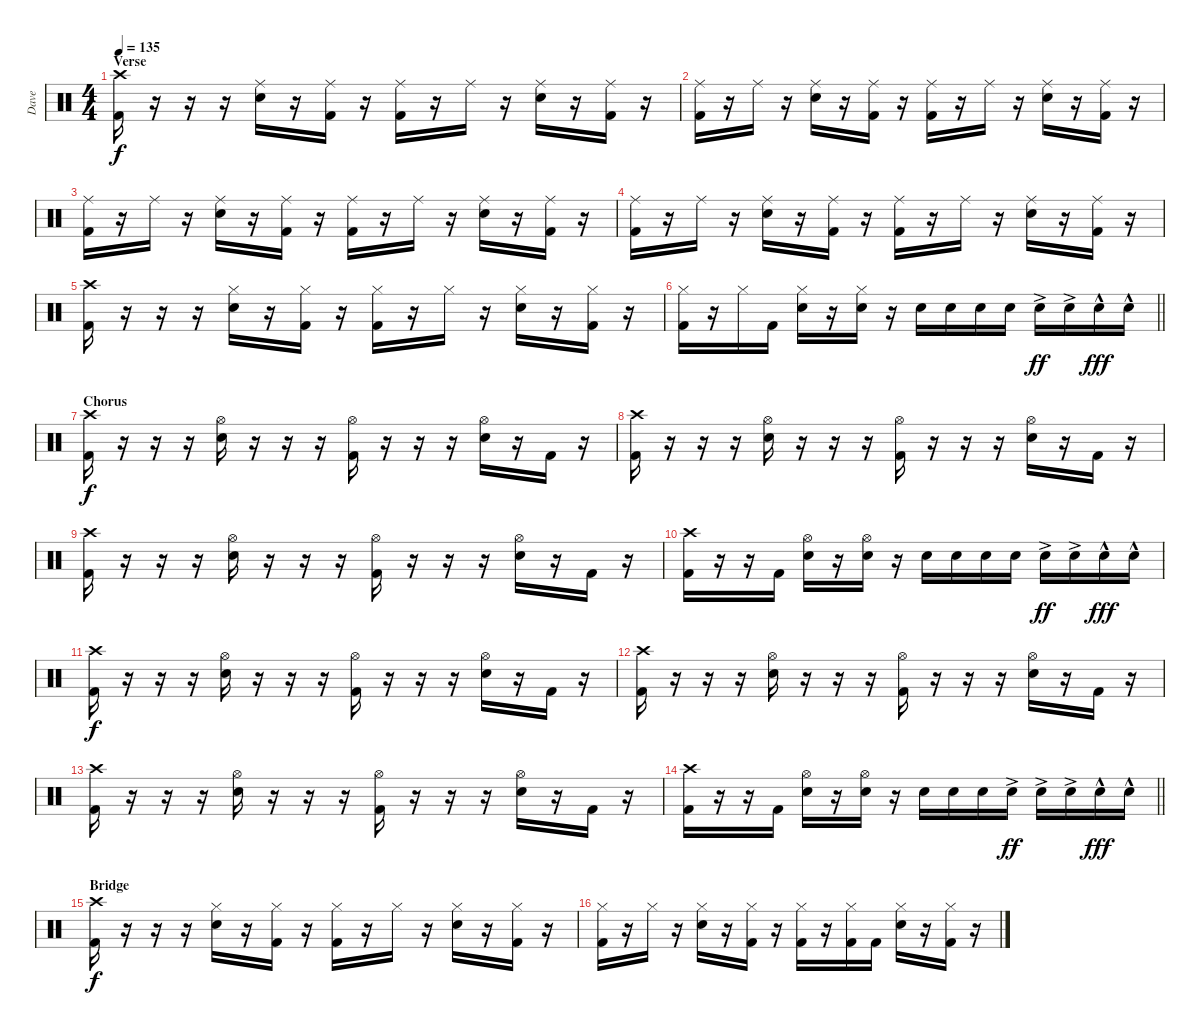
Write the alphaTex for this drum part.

\track ("Dave" "Dave") {instrument percussion}
\staff {score}
\articulation defaults
\ts (4 4)
\section ("" "Verse")
\tempo 135
\clef neutral
\ks c
("Crash high (hit)" "Kick (hit) 2").16{dy f} r.16 r.16 r.16 ("Ride (middle)" "Electric Snare (hit)").16 r.16 ("Ride (middle)" "Kick (hit) 2").16 r.16 ("Ride (middle)" "Kick (hit) 2").16 r.16 "Ride (middle)".16 r.16 ("Ride (middle)" "Electric Snare (hit)").16 r.16 ("Ride (middle)" "Kick (hit) 2").16 r.16 |
("Ride (middle)" "Kick (hit) 2").16 r.16 "Ride (middle)".16 r.16 ("Ride (middle)" "Electric Snare (hit)").16 r.16 ("Ride (middle)" "Kick (hit) 2").16 r.16 ("Ride (middle)" "Kick (hit) 2").16 r.16 "Ride (middle)".16 r.16 ("Ride (middle)" "Electric Snare (hit)").16 r.16 ("Ride (middle)" "Kick (hit) 2").16 r.16 |
("Ride (middle)" "Kick (hit) 2").16 r.16 "Ride (middle)".16 r.16 ("Ride (middle)" "Electric Snare (hit)").16 r.16 ("Ride (middle)" "Kick (hit) 2").16 r.16 ("Ride (middle)" "Kick (hit) 2").16 r.16 "Ride (middle)".16 r.16 ("Ride (middle)" "Electric Snare (hit)").16 r.16 ("Ride (middle)" "Kick (hit) 2").16 r.16 |
("Ride (middle)" "Kick (hit) 2").16 r.16 "Ride (middle)".16 r.16 ("Ride (middle)" "Electric Snare (hit)").16 r.16 ("Ride (middle)" "Kick (hit) 2").16 r.16 ("Ride (middle)" "Kick (hit) 2").16 r.16 "Ride (middle)".16 r.16 ("Ride (middle)" "Electric Snare (hit)").16 r.16 ("Ride (middle)" "Kick (hit) 2").16 r.16 |
("Crash high (hit)" "Kick (hit) 2").16 r.16 r.16 r.16 ("Hi-Hat (closed)" "Electric Snare (hit)").16 r.16 ("Hi-Hat (closed)" "Kick (hit) 2").16 r.16 ("Hi-Hat (closed)" "Kick (hit) 2").16 r.16 "Hi-Hat (closed)".16 r.16 ("Hi-Hat (closed)" "Electric Snare (hit)").16 r.16 ("Hi-Hat (closed)" "Kick (hit) 2").16 r.16 |
\barLineRight lightlight
("Hi-Hat (closed)" "Kick (hit) 2").16 r.16 "Hi-Hat (closed)".16 "Kick (hit) 2".16 ("Hi-Hat (closed)" "Electric Snare (hit)").16 r.16 ("Hi-Hat (closed)" "Electric Snare (hit)").16 r.16 "Electric Snare (hit)".16 "Electric Snare (hit)".16 "Electric Snare (hit)".16 "Electric Snare (hit)".16 "Electric Snare (hit)"{ac}.16{dy ff} "Electric Snare (hit)"{ac}.16 "Electric Snare (hit)"{hac}.16{dy fff} "Electric Snare (hit)"{hac}.16 |
\section ("" "Chorus")
("Crash high (hit)" "Kick (hit) 2").16{dy f} r.16 r.16 r.16 ("Hi-Hat (open)" "Electric Snare (hit)").16 r.16 r.16 r.16 ("Hi-Hat (open)" "Kick (hit) 2").16 r.16 r.16 r.16 ("Hi-Hat (open)" "Electric Snare (hit)").16 r.16 "Kick (hit) 2".16 r.16 |
("Crash high (hit)" "Kick (hit) 2").16 r.16 r.16 r.16 ("Hi-Hat (open)" "Electric Snare (hit)").16 r.16 r.16 r.16 ("Hi-Hat (open)" "Kick (hit) 2").16 r.16 r.16 r.16 ("Hi-Hat (open)" "Electric Snare (hit)").16 r.16 "Kick (hit) 2".16 r.16 |
("Crash high (hit)" "Kick (hit) 2").16 r.16 r.16 r.16 ("Hi-Hat (open)" "Electric Snare (hit)").16 r.16 r.16 r.16 ("Hi-Hat (open)" "Kick (hit) 2").16 r.16 r.16 r.16 ("Hi-Hat (open)" "Electric Snare (hit)").16 r.16 "Kick (hit) 2".16 r.16 |
("Crash high (hit)" "Kick (hit) 2").16 r.16 r.16 "Kick (hit) 2".16 ("Hi-Hat (open)" "Electric Snare (hit)").16 r.16 ("Hi-Hat (open)" "Electric Snare (hit)").16 r.16 "Electric Snare (hit)".16 "Electric Snare (hit)".16 "Electric Snare (hit)".16 "Electric Snare (hit)".16 "Electric Snare (hit)"{ac}.16{dy ff} "Electric Snare (hit)"{ac}.16 "Electric Snare (hit)"{hac}.16{dy fff} "Electric Snare (hit)"{hac}.16 |
("Crash high (hit)" "Kick (hit) 2").16{dy f} r.16 r.16 r.16 ("Hi-Hat (open)" "Electric Snare (hit)").16 r.16 r.16 r.16 ("Hi-Hat (open)" "Kick (hit) 2").16 r.16 r.16 r.16 ("Hi-Hat (open)" "Electric Snare (hit)").16 r.16 "Kick (hit) 2".16 r.16 |
("Crash high (hit)" "Kick (hit) 2").16 r.16 r.16 r.16 ("Hi-Hat (open)" "Electric Snare (hit)").16 r.16 r.16 r.16 ("Hi-Hat (open)" "Kick (hit) 2").16 r.16 r.16 r.16 ("Hi-Hat (open)" "Electric Snare (hit)").16 r.16 "Kick (hit) 2".16 r.16 |
("Crash high (hit)" "Kick (hit) 2").16 r.16 r.16 r.16 ("Hi-Hat (open)" "Electric Snare (hit)").16 r.16 r.16 r.16 ("Hi-Hat (open)" "Kick (hit) 2").16 r.16 r.16 r.16 ("Hi-Hat (open)" "Electric Snare (hit)").16 r.16 "Kick (hit) 2".16 r.16 |
\barLineRight lightlight
("Crash high (hit)" "Kick (hit) 2").16 r.16 r.16 "Kick (hit) 2".16 ("Hi-Hat (open)" "Electric Snare (hit)").16 r.16 ("Hi-Hat (open)" "Electric Snare (hit)").16 r.16 "Electric Snare (hit)".16 "Electric Snare (hit)".16 "Electric Snare (hit)".16 "Electric Snare (hit)"{ac}.16{dy ff} "Electric Snare (hit)"{ac}.16 "Electric Snare (hit)"{ac}.16 "Electric Snare (hit)"{hac}.16{dy fff} "Electric Snare (hit)"{hac}.16 |
\section ("" "Bridge")
("Crash high (hit)" "Kick (hit) 2").16{dy f} r.16 r.16 r.16 ("Hi-Hat (closed)" "Electric Snare (hit)").16 r.16 ("Hi-Hat (closed)" "Kick (hit) 2").16 r.16 ("Hi-Hat (closed)" "Kick (hit) 2").16 r.16 "Hi-Hat (closed)".16 r.16 ("Hi-Hat (closed)" "Electric Snare (hit)").16 r.16 ("Hi-Hat (closed)" "Kick (hit) 2").16 r.16 |
("Hi-Hat (closed)" "Kick (hit) 2").16 r.16 "Hi-Hat (closed)".16 r.16 ("Hi-Hat (closed)" "Electric Snare (hit)").16 r.16 ("Hi-Hat (closed)" "Kick (hit) 2").16 r.16 ("Hi-Hat (closed)" "Kick (hit) 2").16 r.16 ("Hi-Hat (closed)" "Kick (hit) 2").16 "Kick (hit) 2".16 ("Hi-Hat (closed)" "Electric Snare (hit)").16 r.16 ("Hi-Hat (closed)" "Kick (hit) 2").16 r.16
